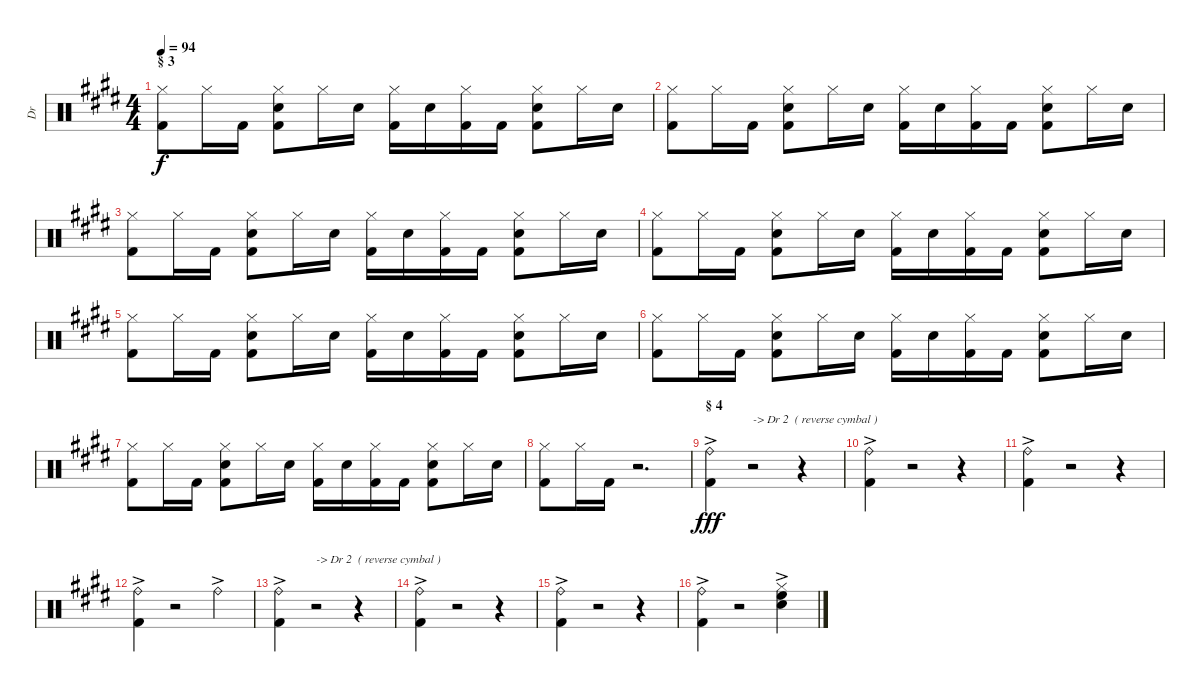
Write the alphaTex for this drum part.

\track ("Dr" "Dr") {instrument percussion}
\staff {score}
\articulation defaults
\ts (4 4)
\section ("" "§ 3")
\tempo 94
\clef neutral
\ks e
("Hi-Hat (closed)" "Kick (hit) 2").8{dy f} "Hi-Hat (closed)".16 "Kick (hit) 2".16 ("Hi-Hat (closed)" "Electric Snare (hit)" "Kick (hit) 2").8 "Hi-Hat (closed)".16 "Electric Snare (hit)".16 ("Hi-Hat (closed)" "Kick (hit) 2").16 "Electric Snare (hit)".16 ("Hi-Hat (closed)" "Kick (hit) 2").16 "Kick (hit) 2".16 ("Hi-Hat (closed)" "Electric Snare (hit)" "Kick (hit) 2").8 "Hi-Hat (closed)".16 "Electric Snare (hit)".16 |
("Hi-Hat (closed)" "Kick (hit) 2").8 "Hi-Hat (closed)".16 "Kick (hit) 2".16 ("Hi-Hat (closed)" "Electric Snare (hit)" "Kick (hit) 2").8 "Hi-Hat (closed)".16 "Electric Snare (hit)".16 ("Hi-Hat (closed)" "Kick (hit) 2").16 "Electric Snare (hit)".16 ("Hi-Hat (closed)" "Kick (hit) 2").16 "Kick (hit) 2".16 ("Hi-Hat (closed)" "Electric Snare (hit)" "Kick (hit) 2").8 "Hi-Hat (closed)".16 "Electric Snare (hit)".16 |
("Hi-Hat (closed)" "Kick (hit) 2").8 "Hi-Hat (closed)".16 "Kick (hit) 2".16 ("Hi-Hat (closed)" "Electric Snare (hit)" "Kick (hit) 2").8 "Hi-Hat (closed)".16 "Electric Snare (hit)".16 ("Hi-Hat (closed)" "Kick (hit) 2").16 "Electric Snare (hit)".16 ("Hi-Hat (closed)" "Kick (hit) 2").16 "Kick (hit) 2".16 ("Hi-Hat (closed)" "Electric Snare (hit)" "Kick (hit) 2").8 "Hi-Hat (closed)".16 "Electric Snare (hit)".16 |
("Hi-Hat (closed)" "Kick (hit) 2").8 "Hi-Hat (closed)".16 "Kick (hit) 2".16 ("Hi-Hat (closed)" "Electric Snare (hit)" "Kick (hit) 2").8 "Hi-Hat (closed)".16 "Electric Snare (hit)".16 ("Hi-Hat (closed)" "Kick (hit) 2").16 "Electric Snare (hit)".16 ("Hi-Hat (closed)" "Kick (hit) 2").16 "Kick (hit) 2".16 ("Hi-Hat (closed)" "Electric Snare (hit)" "Kick (hit) 2").8 "Hi-Hat (closed)".16 "Electric Snare (hit)".16 |
("Hi-Hat (closed)" "Kick (hit) 2").8 "Hi-Hat (closed)".16 "Kick (hit) 2".16 ("Hi-Hat (closed)" "Electric Snare (hit)" "Kick (hit) 2").8 "Hi-Hat (closed)".16 "Electric Snare (hit)".16 ("Hi-Hat (closed)" "Kick (hit) 2").16 "Electric Snare (hit)".16 ("Hi-Hat (closed)" "Kick (hit) 2").16 "Kick (hit) 2".16 ("Hi-Hat (closed)" "Electric Snare (hit)" "Kick (hit) 2").8 "Hi-Hat (closed)".16 "Electric Snare (hit)".16 |
("Hi-Hat (closed)" "Kick (hit) 2").8 "Hi-Hat (closed)".16 "Kick (hit) 2".16 ("Hi-Hat (closed)" "Electric Snare (hit)" "Kick (hit) 2").8 "Hi-Hat (closed)".16 "Electric Snare (hit)".16 ("Hi-Hat (closed)" "Kick (hit) 2").16 "Electric Snare (hit)".16 ("Hi-Hat (closed)" "Kick (hit) 2").16 "Kick (hit) 2".16 ("Hi-Hat (closed)" "Electric Snare (hit)" "Kick (hit) 2").8 "Hi-Hat (closed)".16 "Electric Snare (hit)".16 |
("Hi-Hat (closed)" "Kick (hit) 2").8 "Hi-Hat (closed)".16 "Kick (hit) 2".16 ("Hi-Hat (closed)" "Electric Snare (hit)" "Kick (hit) 2").8 "Hi-Hat (closed)".16 "Electric Snare (hit)".16 ("Hi-Hat (closed)" "Kick (hit) 2").16 "Electric Snare (hit)".16 ("Hi-Hat (closed)" "Kick (hit) 2").16 "Kick (hit) 2".16 ("Hi-Hat (closed)" "Electric Snare (hit)" "Kick (hit) 2").8 "Hi-Hat (closed)".16 "Electric Snare (hit)".16 |
("Hi-Hat (closed)" "Kick (hit) 2").8 "Hi-Hat (closed)".16 "Kick (hit) 2".16 r.2{d} |
\section ("" "§ 4")
("Ride (bell)"{ac} "Kick (hit) 2"{ac}).4{dy fff} r.2{txt "-> Dr 2  ( reverse cymbal )"} r.4 |
("Ride (bell)"{ac} "Kick (hit) 2"{ac}).4 r.2 r.4 |
("Ride (bell)"{ac} "Kick (hit) 2"{ac}).4 r.2 r.4 |
("Ride (bell)"{ac} "Kick (hit) 2"{ac}).4 r.2 "Ride (bell)"{ac}.4 |
("Ride (bell)"{ac} "Kick (hit) 2"{ac}).4 r.2{txt "-> Dr 2  ( reverse cymbal )"} r.4 |
("Ride (bell)"{ac} "Kick (hit) 2"{ac}).4 r.2 r.4 |
("Ride (bell)"{ac} "Kick (hit) 2"{ac}).4 r.2 r.4 |
("Ride (bell)"{ac} "Kick (hit) 2"{ac}).4 r.2 ("Hi-Hat (closed)"{ac} "Electric Snare (hit)"{ac} "High Floor Tom (hit)"{ac}).4
